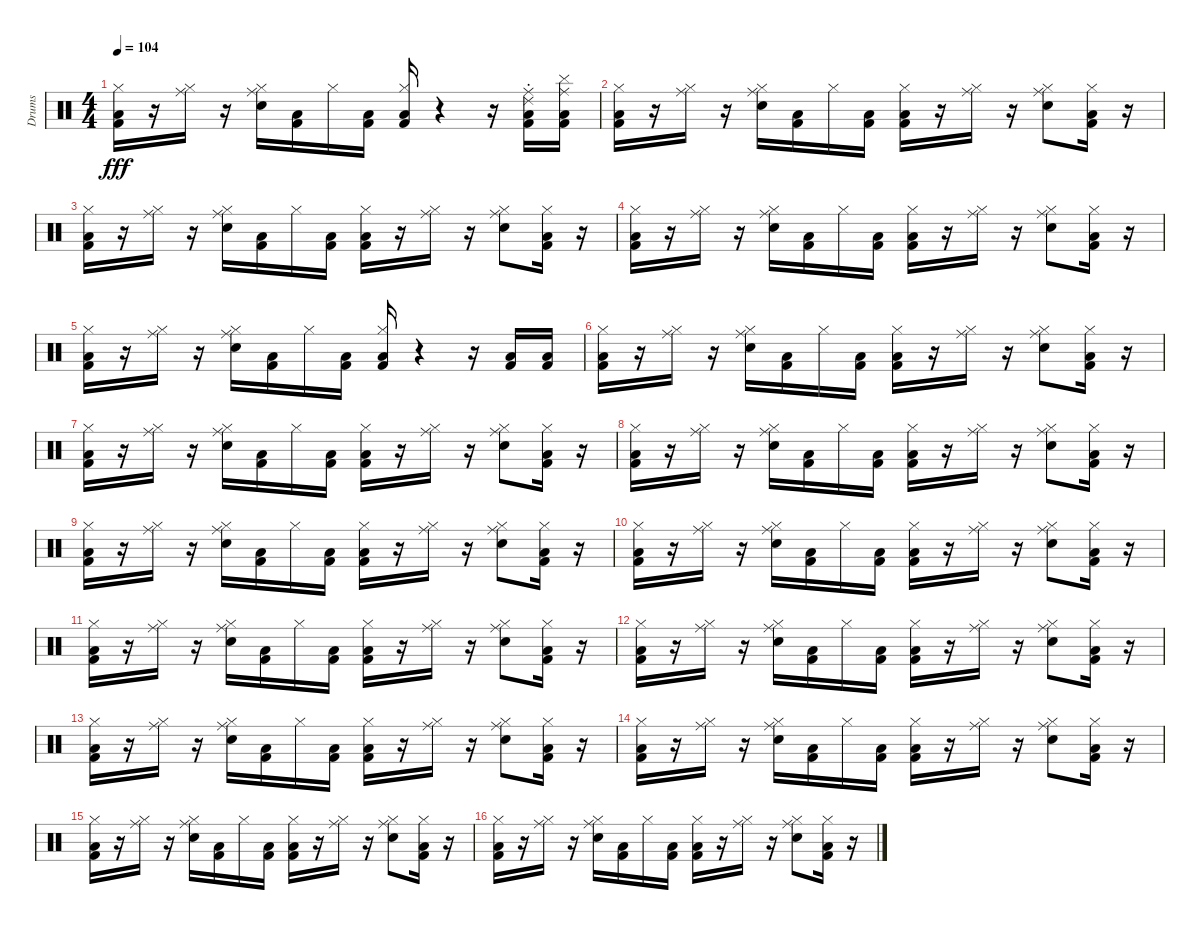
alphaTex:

\track ("Drums" "Drums") {instrument percussion}
\staff {score}
\articulation defaults
\ts (4 4)
\tempo 104
\clef neutral
\ks c
("Kick (hit) 2" "Hi-Hat (closed)" "Low Floor Tom (hit)").16{dy fff} r.16 ("Hi-Hat (closed)" "Ride (middle)").16 r.16 ("Ride (middle)" "Hi-Hat (closed)" "Electric Snare (hit)").16 ("Low Floor Tom (hit)" "Kick (hit) 2").16 "Hi-Hat (closed)".16 ("Kick (hit) 2" "Low Floor Tom (hit)").16 ("Hi-Hat (closed)" "Low Floor Tom (hit)" "Kick (hit) 2").16 r.4 r.16 ("Ride (choke) 2" "Kick (hit) 2" "Ride (middle)" "Low Floor Tom (hit)").16 ("Cymbal (hit)" "Kick (hit) 2" "Low Floor Tom (hit)" "Ride (middle)").16 |
("Low Floor Tom (hit)" "Hi-Hat (closed)" "Kick (hit) 2").16 r.16 ("Hi-Hat (closed)" "Ride (middle)").16 r.16 ("Hi-Hat (closed)" "Ride (middle)" "Electric Snare (hit)").16 ("Low Floor Tom (hit)" "Kick (hit) 2").16 "Hi-Hat (closed)".16 ("Low Floor Tom (hit)" "Kick (hit) 2").16 ("Low Floor Tom (hit)" "Hi-Hat (closed)" "Kick (hit) 2").16 r.16 ("Ride (middle)" "Hi-Hat (closed)").16 r.16 ("Hi-Hat (closed)" "Electric Snare (hit)" "Ride (middle)").8 ("Kick (hit) 2" "Hi-Hat (closed)" "Low Floor Tom (hit)").16 r.16 |
("Low Floor Tom (hit)" "Kick (hit) 2" "Hi-Hat (closed)").16 r.16 ("Ride (middle)" "Hi-Hat (closed)").16 r.16 ("Hi-Hat (closed)" "Ride (middle)" "Electric Snare (hit)").16 ("Kick (hit) 2" "Low Floor Tom (hit)").16 "Hi-Hat (closed)".16 ("Low Floor Tom (hit)" "Kick (hit) 2").16 ("Hi-Hat (closed)" "Low Floor Tom (hit)" "Kick (hit) 2").16 r.16 ("Hi-Hat (closed)" "Ride (middle)").16 r.16 ("Ride (middle)" "Hi-Hat (closed)" "Electric Snare (hit)").8 ("Kick (hit) 2" "Low Floor Tom (hit)" "Hi-Hat (closed)").16 r.16 |
("Kick (hit) 2" "Low Floor Tom (hit)" "Hi-Hat (closed)").16 r.16 ("Ride (middle)" "Hi-Hat (closed)").16 r.16 ("Hi-Hat (closed)" "Ride (middle)" "Electric Snare (hit)").16 ("Kick (hit) 2" "Low Floor Tom (hit)").16 "Hi-Hat (closed)".16 ("Kick (hit) 2" "Low Floor Tom (hit)").16 ("Low Floor Tom (hit)" "Kick (hit) 2" "Hi-Hat (closed)").16 r.16 ("Hi-Hat (closed)" "Ride (middle)").16 r.16 ("Hi-Hat (closed)" "Electric Snare (hit)" "Ride (middle)").8 ("Kick (hit) 2" "Hi-Hat (closed)" "Low Floor Tom (hit)").16 r.16 |
("Kick (hit) 2" "Hi-Hat (closed)" "Low Floor Tom (hit)").16 r.16 ("Ride (middle)" "Hi-Hat (closed)").16 r.16 ("Ride (middle)" "Hi-Hat (closed)" "Electric Snare (hit)").16 ("Kick (hit) 2" "Low Floor Tom (hit)").16 "Hi-Hat (closed)".16 ("Low Floor Tom (hit)" "Kick (hit) 2").16 ("Kick (hit) 2" "Low Floor Tom (hit)" "Hi-Hat (closed)").16 r.4 r.16 ("Low Floor Tom (hit)" "Kick (hit) 2").16 ("Low Floor Tom (hit)" "Kick (hit) 2").16 |
("Low Floor Tom (hit)" "Hi-Hat (closed)" "Kick (hit) 2").16 r.16 ("Hi-Hat (closed)" "Ride (middle)").16 r.16 ("Ride (middle)" "Electric Snare (hit)" "Hi-Hat (closed)").16 ("Kick (hit) 2" "Low Floor Tom (hit)").16 "Hi-Hat (closed)".16 ("Low Floor Tom (hit)" "Kick (hit) 2").16 ("Kick (hit) 2" "Low Floor Tom (hit)" "Hi-Hat (closed)").16 r.16 ("Ride (middle)" "Hi-Hat (closed)").16 r.16 ("Electric Snare (hit)" "Ride (middle)" "Hi-Hat (closed)").8 ("Kick (hit) 2" "Hi-Hat (closed)" "Low Floor Tom (hit)").16 r.16 |
("Kick (hit) 2" "Hi-Hat (closed)" "Low Floor Tom (hit)").16 r.16 ("Ride (middle)" "Hi-Hat (closed)").16 r.16 ("Ride (middle)" "Electric Snare (hit)" "Hi-Hat (closed)").16 ("Low Floor Tom (hit)" "Kick (hit) 2").16 "Hi-Hat (closed)".16 ("Kick (hit) 2" "Low Floor Tom (hit)").16 ("Kick (hit) 2" "Low Floor Tom (hit)" "Hi-Hat (closed)").16 r.16 ("Hi-Hat (closed)" "Ride (middle)").16 r.16 ("Ride (middle)" "Hi-Hat (closed)" "Electric Snare (hit)").8 ("Hi-Hat (closed)" "Kick (hit) 2" "Low Floor Tom (hit)").16 r.16 |
("Kick (hit) 2" "Low Floor Tom (hit)" "Hi-Hat (closed)").16 r.16 ("Hi-Hat (closed)" "Ride (middle)").16 r.16 ("Ride (middle)" "Hi-Hat (closed)" "Electric Snare (hit)").16 ("Low Floor Tom (hit)" "Kick (hit) 2").16 "Hi-Hat (closed)".16 ("Low Floor Tom (hit)" "Kick (hit) 2").16 ("Kick (hit) 2" "Low Floor Tom (hit)" "Hi-Hat (closed)").16 r.16 ("Hi-Hat (closed)" "Ride (middle)").16 r.16 ("Ride (middle)" "Hi-Hat (closed)" "Electric Snare (hit)").8 ("Kick (hit) 2" "Low Floor Tom (hit)" "Hi-Hat (closed)").16 r.16 |
("Hi-Hat (closed)" "Low Floor Tom (hit)" "Kick (hit) 2").16 r.16 ("Ride (middle)" "Hi-Hat (closed)").16 r.16 ("Hi-Hat (closed)" "Electric Snare (hit)" "Ride (middle)").16 ("Low Floor Tom (hit)" "Kick (hit) 2").16 "Hi-Hat (closed)".16 ("Kick (hit) 2" "Low Floor Tom (hit)").16 ("Kick (hit) 2" "Hi-Hat (closed)" "Low Floor Tom (hit)").16 r.16 ("Hi-Hat (closed)" "Ride (middle)").16 r.16 ("Hi-Hat (closed)" "Electric Snare (hit)" "Ride (middle)").8 ("Low Floor Tom (hit)" "Hi-Hat (closed)" "Kick (hit) 2").16 r.16 |
("Low Floor Tom (hit)" "Kick (hit) 2" "Hi-Hat (closed)").16 r.16 ("Ride (middle)" "Hi-Hat (closed)").16 r.16 ("Ride (middle)" "Hi-Hat (closed)" "Electric Snare (hit)").16 ("Kick (hit) 2" "Low Floor Tom (hit)").16 "Hi-Hat (closed)".16 ("Kick (hit) 2" "Low Floor Tom (hit)").16 ("Kick (hit) 2" "Hi-Hat (closed)" "Low Floor Tom (hit)").16 r.16 ("Ride (middle)" "Hi-Hat (closed)").16 r.16 ("Hi-Hat (closed)" "Ride (middle)" "Electric Snare (hit)").8 ("Kick (hit) 2" "Low Floor Tom (hit)" "Hi-Hat (closed)").16 r.16 |
("Low Floor Tom (hit)" "Kick (hit) 2" "Hi-Hat (closed)").16 r.16 ("Hi-Hat (closed)" "Ride (middle)").16 r.16 ("Ride (middle)" "Electric Snare (hit)" "Hi-Hat (closed)").16 ("Low Floor Tom (hit)" "Kick (hit) 2").16 "Hi-Hat (closed)".16 ("Low Floor Tom (hit)" "Kick (hit) 2").16 ("Hi-Hat (closed)" "Kick (hit) 2" "Low Floor Tom (hit)").16 r.16 ("Ride (middle)" "Hi-Hat (closed)").16 r.16 ("Electric Snare (hit)" "Ride (middle)" "Hi-Hat (closed)").8 ("Hi-Hat (closed)" "Low Floor Tom (hit)" "Kick (hit) 2").16 r.16 |
("Hi-Hat (closed)" "Low Floor Tom (hit)" "Kick (hit) 2").16 r.16 ("Hi-Hat (closed)" "Ride (middle)").16 r.16 ("Hi-Hat (closed)" "Ride (middle)" "Electric Snare (hit)").16 ("Low Floor Tom (hit)" "Kick (hit) 2").16 "Hi-Hat (closed)".16 ("Low Floor Tom (hit)" "Kick (hit) 2").16 ("Hi-Hat (closed)" "Low Floor Tom (hit)" "Kick (hit) 2").16 r.16 ("Ride (middle)" "Hi-Hat (closed)").16 r.16 ("Electric Snare (hit)" "Ride (middle)" "Hi-Hat (closed)").8 ("Kick (hit) 2" "Hi-Hat (closed)" "Low Floor Tom (hit)").16 r.16 |
("Hi-Hat (closed)" "Low Floor Tom (hit)" "Kick (hit) 2").16 r.16 ("Hi-Hat (closed)" "Ride (middle)").16 r.16 ("Hi-Hat (closed)" "Ride (middle)" "Electric Snare (hit)").16 ("Low Floor Tom (hit)" "Kick (hit) 2").16 "Hi-Hat (closed)".16 ("Kick (hit) 2" "Low Floor Tom (hit)").16 ("Kick (hit) 2" "Low Floor Tom (hit)" "Hi-Hat (closed)").16 r.16 ("Hi-Hat (closed)" "Ride (middle)").16 r.16 ("Hi-Hat (closed)" "Electric Snare (hit)" "Ride (middle)").8 ("Kick (hit) 2" "Low Floor Tom (hit)" "Hi-Hat (closed)").16 r.16 |
("Low Floor Tom (hit)" "Hi-Hat (closed)" "Kick (hit) 2").16 r.16 ("Hi-Hat (closed)" "Ride (middle)").16 r.16 ("Electric Snare (hit)" "Ride (middle)" "Hi-Hat (closed)").16 ("Low Floor Tom (hit)" "Kick (hit) 2").16 "Hi-Hat (closed)".16 ("Kick (hit) 2" "Low Floor Tom (hit)").16 ("Kick (hit) 2" "Hi-Hat (closed)" "Low Floor Tom (hit)").16 r.16 ("Hi-Hat (closed)" "Ride (middle)").16 r.16 ("Electric Snare (hit)" "Ride (middle)" "Hi-Hat (closed)").8 ("Hi-Hat (closed)" "Kick (hit) 2" "Low Floor Tom (hit)").16 r.16 |
("Low Floor Tom (hit)" "Kick (hit) 2" "Hi-Hat (closed)").16 r.16 ("Hi-Hat (closed)" "Ride (middle)").16 r.16 ("Hi-Hat (closed)" "Electric Snare (hit)" "Ride (middle)").16 ("Kick (hit) 2" "Low Floor Tom (hit)").16 "Hi-Hat (closed)".16 ("Low Floor Tom (hit)" "Kick (hit) 2").16 ("Low Floor Tom (hit)" "Kick (hit) 2" "Hi-Hat (closed)").16 r.16 ("Ride (middle)" "Hi-Hat (closed)").16 r.16 ("Hi-Hat (closed)" "Ride (middle)" "Electric Snare (hit)").8 ("Hi-Hat (closed)" "Low Floor Tom (hit)" "Kick (hit) 2").16 r.16 |
("Hi-Hat (closed)" "Low Floor Tom (hit)" "Kick (hit) 2").16 r.16 ("Hi-Hat (closed)" "Ride (middle)").16 r.16 ("Ride (middle)" "Electric Snare (hit)" "Hi-Hat (closed)").16 ("Low Floor Tom (hit)" "Kick (hit) 2").16 "Hi-Hat (closed)".16 ("Low Floor Tom (hit)" "Kick (hit) 2").16 ("Hi-Hat (closed)" "Low Floor Tom (hit)" "Kick (hit) 2").16 r.16 ("Hi-Hat (closed)" "Ride (middle)").16 r.16 ("Hi-Hat (closed)" "Electric Snare (hit)" "Ride (middle)").8 ("Hi-Hat (closed)" "Low Floor Tom (hit)" "Kick (hit) 2").16 r.16
